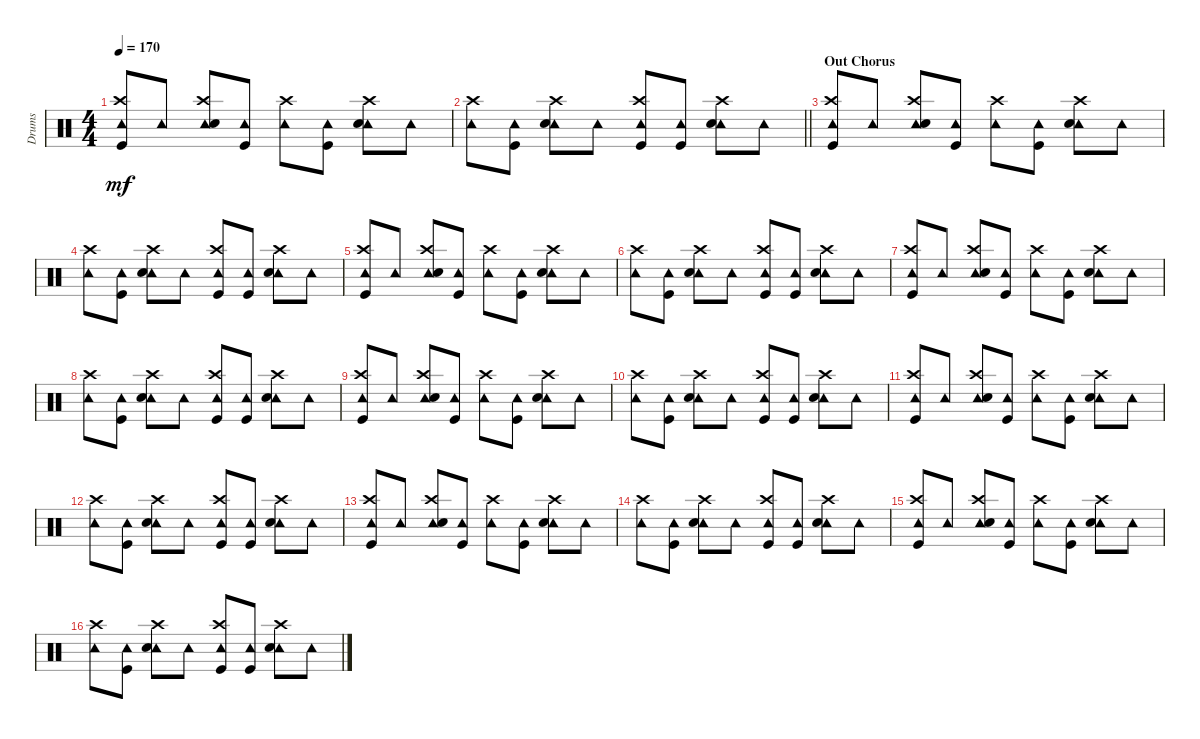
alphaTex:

\track ("Drums" "Drums") {instrument percussion}
\staff {score}
\articulation defaults
\ts (4 4)
\tempo 170
\clef neutral
\ks c
("Tambourine (hit)" "Crash high (hit)" "Kick (hit)").8{dy mf} "Tambourine (hit)".8 ("Tambourine (hit)" "Crash high (hit)" "Snare (hit) 2").8 ("Tambourine (hit)" "Kick (hit)").8 ("Tambourine (hit)" "Crash high (hit)").8 ("Tambourine (hit)" "Kick (hit)").8 ("Tambourine (hit)" "Crash high (hit)" "Snare (hit) 2").8 "Tambourine (hit)".8 |
\barLineRight lightlight
("Tambourine (hit)" "Crash high (hit)").8 ("Tambourine (hit)" "Kick (hit)").8 ("Tambourine (hit)" "Crash high (hit)" "Snare (hit) 2").8 "Tambourine (hit)".8 ("Tambourine (hit)" "Crash high (hit)" "Kick (hit)").8 ("Tambourine (hit)" "Kick (hit)").8 ("Tambourine (hit)" "Crash high (hit)" "Snare (hit) 2").8 "Tambourine (hit)".8 |
\section ("" "Out Chorus")
("Tambourine (hit)" "Crash high (hit)" "Kick (hit)").8 "Tambourine (hit)".8 ("Tambourine (hit)" "Crash high (hit)" "Snare (hit) 2").8 ("Tambourine (hit)" "Kick (hit)").8 ("Tambourine (hit)" "Crash high (hit)").8 ("Tambourine (hit)" "Kick (hit)").8 ("Tambourine (hit)" "Crash high (hit)" "Snare (hit) 2").8 "Tambourine (hit)".8 |
("Tambourine (hit)" "Crash high (hit)").8 ("Tambourine (hit)" "Kick (hit)").8 ("Tambourine (hit)" "Crash high (hit)" "Snare (hit) 2").8 "Tambourine (hit)".8 ("Tambourine (hit)" "Crash high (hit)" "Kick (hit)").8 ("Tambourine (hit)" "Kick (hit)").8 ("Tambourine (hit)" "Crash high (hit)" "Snare (hit) 2").8 "Tambourine (hit)".8 |
("Tambourine (hit)" "Crash high (hit)" "Kick (hit)").8 "Tambourine (hit)".8 ("Tambourine (hit)" "Crash high (hit)" "Snare (hit) 2").8 ("Tambourine (hit)" "Kick (hit)").8 ("Tambourine (hit)" "Crash high (hit)").8 ("Tambourine (hit)" "Kick (hit)").8 ("Tambourine (hit)" "Crash high (hit)" "Snare (hit) 2").8 "Tambourine (hit)".8 |
("Tambourine (hit)" "Crash high (hit)").8 ("Tambourine (hit)" "Kick (hit)").8 ("Tambourine (hit)" "Crash high (hit)" "Snare (hit) 2").8 "Tambourine (hit)".8 ("Tambourine (hit)" "Crash high (hit)" "Kick (hit)").8 ("Tambourine (hit)" "Kick (hit)").8 ("Tambourine (hit)" "Crash high (hit)" "Snare (hit) 2").8 "Tambourine (hit)".8 |
("Tambourine (hit)" "Crash high (hit)" "Kick (hit)").8 "Tambourine (hit)".8 ("Tambourine (hit)" "Crash high (hit)" "Snare (hit) 2").8 ("Tambourine (hit)" "Kick (hit)").8 ("Tambourine (hit)" "Crash high (hit)").8 ("Tambourine (hit)" "Kick (hit)").8 ("Tambourine (hit)" "Crash high (hit)" "Snare (hit) 2").8 "Tambourine (hit)".8 |
("Tambourine (hit)" "Crash high (hit)").8 ("Tambourine (hit)" "Kick (hit)").8 ("Tambourine (hit)" "Crash high (hit)" "Snare (hit) 2").8 "Tambourine (hit)".8 ("Tambourine (hit)" "Crash high (hit)" "Kick (hit)").8 ("Tambourine (hit)" "Kick (hit)").8 ("Tambourine (hit)" "Crash high (hit)" "Snare (hit) 2").8 "Tambourine (hit)".8 |
("Tambourine (hit)" "Crash high (hit)" "Kick (hit)").8 "Tambourine (hit)".8 ("Tambourine (hit)" "Crash high (hit)" "Snare (hit) 2").8 ("Tambourine (hit)" "Kick (hit)").8 ("Tambourine (hit)" "Crash high (hit)").8 ("Tambourine (hit)" "Kick (hit)").8 ("Tambourine (hit)" "Crash high (hit)" "Snare (hit) 2").8 "Tambourine (hit)".8 |
("Tambourine (hit)" "Crash high (hit)").8 ("Tambourine (hit)" "Kick (hit)").8 ("Tambourine (hit)" "Crash high (hit)" "Snare (hit) 2").8 "Tambourine (hit)".8 ("Tambourine (hit)" "Crash high (hit)" "Kick (hit)").8 ("Tambourine (hit)" "Kick (hit)").8 ("Tambourine (hit)" "Crash high (hit)" "Snare (hit) 2").8 "Tambourine (hit)".8 |
("Tambourine (hit)" "Crash high (hit)" "Kick (hit)").8 "Tambourine (hit)".8 ("Tambourine (hit)" "Crash high (hit)" "Snare (hit) 2").8 ("Tambourine (hit)" "Kick (hit)").8 ("Tambourine (hit)" "Crash high (hit)").8 ("Tambourine (hit)" "Kick (hit)").8 ("Tambourine (hit)" "Crash high (hit)" "Snare (hit) 2").8 "Tambourine (hit)".8 |
("Tambourine (hit)" "Crash high (hit)").8 ("Tambourine (hit)" "Kick (hit)").8 ("Tambourine (hit)" "Crash high (hit)" "Snare (hit) 2").8 "Tambourine (hit)".8 ("Tambourine (hit)" "Crash high (hit)" "Kick (hit)").8 ("Tambourine (hit)" "Kick (hit)").8 ("Tambourine (hit)" "Crash high (hit)" "Snare (hit) 2").8 "Tambourine (hit)".8 |
("Tambourine (hit)" "Crash high (hit)" "Kick (hit)").8 "Tambourine (hit)".8 ("Tambourine (hit)" "Crash high (hit)" "Snare (hit) 2").8 ("Tambourine (hit)" "Kick (hit)").8 ("Tambourine (hit)" "Crash high (hit)").8 ("Tambourine (hit)" "Kick (hit)").8 ("Tambourine (hit)" "Crash high (hit)" "Snare (hit) 2").8 "Tambourine (hit)".8 |
("Tambourine (hit)" "Crash high (hit)").8 ("Tambourine (hit)" "Kick (hit)").8 ("Tambourine (hit)" "Crash high (hit)" "Snare (hit) 2").8 "Tambourine (hit)".8 ("Tambourine (hit)" "Crash high (hit)" "Kick (hit)").8 ("Tambourine (hit)" "Kick (hit)").8 ("Tambourine (hit)" "Crash high (hit)" "Snare (hit) 2").8 "Tambourine (hit)".8 |
("Tambourine (hit)" "Crash high (hit)" "Kick (hit)").8 "Tambourine (hit)".8 ("Tambourine (hit)" "Crash high (hit)" "Snare (hit) 2").8 ("Tambourine (hit)" "Kick (hit)").8 ("Tambourine (hit)" "Crash high (hit)").8 ("Tambourine (hit)" "Kick (hit)").8 ("Tambourine (hit)" "Crash high (hit)" "Snare (hit) 2").8 "Tambourine (hit)".8 |
("Tambourine (hit)" "Crash high (hit)").8 ("Tambourine (hit)" "Kick (hit)").8 ("Tambourine (hit)" "Crash high (hit)" "Snare (hit) 2").8 "Tambourine (hit)".8 ("Tambourine (hit)" "Crash high (hit)" "Kick (hit)").8 ("Tambourine (hit)" "Kick (hit)").8 ("Tambourine (hit)" "Crash high (hit)" "Snare (hit) 2").8 "Tambourine (hit)".8
